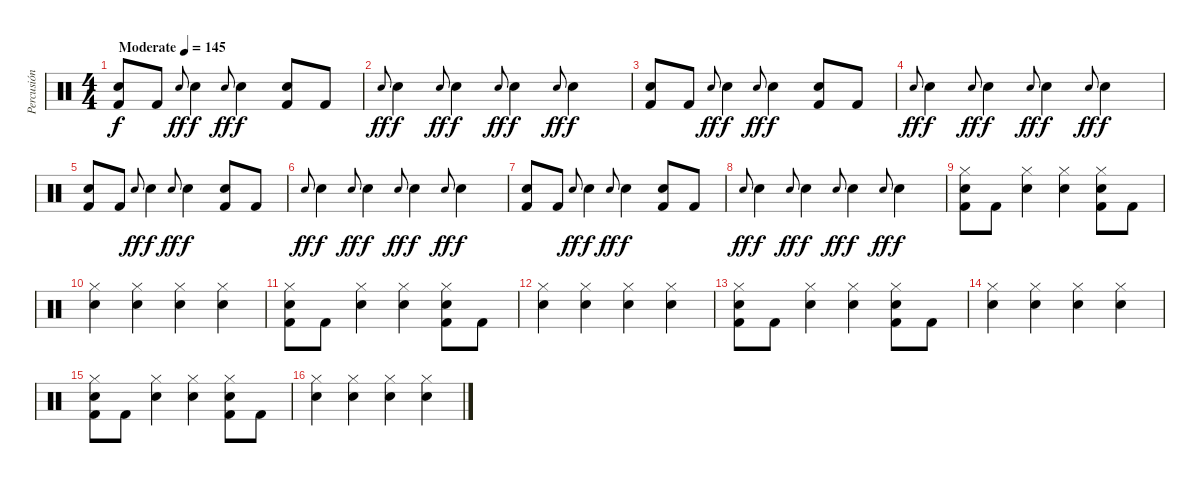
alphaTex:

\track ("Percusión" "Percusión") {instrument percussion}
\staff {score}
\articulation defaults
\ts (4 4)
\tempo (145 "Moderate")
\clef neutral
\ks c
("Snare (hit) 2" "Kick (hit) 2").8{dy f} "Kick (hit) 2".8 "Snare (hit) 2".8{gr onbeat dy ff} "Snare (hit) 2".4{dy f} "Snare (hit) 2".8{gr onbeat dy ff} "Snare (hit) 2".4{dy f} ("Snare (hit) 2" "Kick (hit) 2").8 "Kick (hit) 2".8 |
"Snare (hit) 2".8{gr onbeat dy ff} "Snare (hit) 2".4{dy f} "Snare (hit) 2".8{gr onbeat dy ff} "Snare (hit) 2".4{dy f} "Snare (hit) 2".8{gr onbeat dy ff} "Snare (hit) 2".4{dy f} "Snare (hit) 2".8{gr onbeat dy ff} "Snare (hit) 2".4{dy f} |
("Snare (hit) 2" "Kick (hit) 2").8 "Kick (hit) 2".8 "Snare (hit) 2".8{gr onbeat dy ff} "Snare (hit) 2".4{dy f} "Snare (hit) 2".8{gr onbeat dy ff} "Snare (hit) 2".4{dy f} ("Snare (hit) 2" "Kick (hit) 2").8 "Kick (hit) 2".8 |
"Snare (hit) 2".8{gr onbeat dy ff} "Snare (hit) 2".4{dy f} "Snare (hit) 2".8{gr onbeat dy ff} "Snare (hit) 2".4{dy f} "Snare (hit) 2".8{gr onbeat dy ff} "Snare (hit) 2".4{dy f} "Snare (hit) 2".8{gr onbeat dy ff} "Snare (hit) 2".4{dy f} |
("Snare (hit) 2" "Kick (hit) 2").8 "Kick (hit) 2".8 "Snare (hit) 2".8{gr onbeat dy ff} "Snare (hit) 2".4{dy f} "Snare (hit) 2".8{gr onbeat dy ff} "Snare (hit) 2".4{dy f} ("Snare (hit) 2" "Kick (hit) 2").8 "Kick (hit) 2".8 |
"Snare (hit) 2".8{gr onbeat dy ff} "Snare (hit) 2".4{dy f} "Snare (hit) 2".8{gr onbeat dy ff} "Snare (hit) 2".4{dy f} "Snare (hit) 2".8{gr onbeat dy ff} "Snare (hit) 2".4{dy f} "Snare (hit) 2".8{gr onbeat dy ff} "Snare (hit) 2".4{dy f} |
("Snare (hit) 2" "Kick (hit) 2").8 "Kick (hit) 2".8 "Snare (hit) 2".8{gr onbeat dy ff} "Snare (hit) 2".4{dy f} "Snare (hit) 2".8{gr onbeat dy ff} "Snare (hit) 2".4{dy f} ("Snare (hit) 2" "Kick (hit) 2").8 "Kick (hit) 2".8 |
"Snare (hit) 2".8{gr onbeat dy ff} "Snare (hit) 2".4{dy f} "Snare (hit) 2".8{gr onbeat dy ff} "Snare (hit) 2".4{dy f} "Snare (hit) 2".8{gr onbeat dy ff} "Snare (hit) 2".4{dy f} "Snare (hit) 2".8{gr onbeat dy ff} "Snare (hit) 2".4{dy f} |
("Hi-Hat (closed)" "Snare (hit) 2" "Kick (hit) 2").8 "Kick (hit) 2".8 ("Hi-Hat (closed)" "Snare (hit) 2").4 ("Hi-Hat (closed)" "Snare (hit) 2").4 ("Hi-Hat (closed)" "Snare (hit) 2" "Kick (hit) 2").8 "Kick (hit) 2".8 |
("Hi-Hat (closed)" "Snare (hit) 2").4 ("Hi-Hat (closed)" "Snare (hit) 2").4 ("Hi-Hat (closed)" "Snare (hit) 2").4 ("Hi-Hat (closed)" "Snare (hit) 2").4 |
("Hi-Hat (closed)" "Snare (hit) 2" "Kick (hit) 2").8 "Kick (hit) 2".8 ("Hi-Hat (closed)" "Snare (hit) 2").4 ("Hi-Hat (closed)" "Snare (hit) 2").4 ("Hi-Hat (closed)" "Snare (hit) 2" "Kick (hit) 2").8 "Kick (hit) 2".8 |
("Hi-Hat (closed)" "Snare (hit) 2").4 ("Hi-Hat (closed)" "Snare (hit) 2").4 ("Hi-Hat (closed)" "Snare (hit) 2").4 ("Hi-Hat (closed)" "Snare (hit) 2").4 |
("Hi-Hat (closed)" "Snare (hit) 2" "Kick (hit) 2").8 "Kick (hit) 2".8 ("Hi-Hat (closed)" "Snare (hit) 2").4 ("Hi-Hat (closed)" "Snare (hit) 2").4 ("Hi-Hat (closed)" "Snare (hit) 2" "Kick (hit) 2").8 "Kick (hit) 2".8 |
("Hi-Hat (closed)" "Snare (hit) 2").4 ("Hi-Hat (closed)" "Snare (hit) 2").4 ("Hi-Hat (closed)" "Snare (hit) 2").4 ("Hi-Hat (closed)" "Snare (hit) 2").4 |
("Hi-Hat (closed)" "Snare (hit) 2" "Kick (hit) 2").8 "Kick (hit) 2".8 ("Hi-Hat (closed)" "Snare (hit) 2").4 ("Hi-Hat (closed)" "Snare (hit) 2").4 ("Hi-Hat (closed)" "Snare (hit) 2" "Kick (hit) 2").8 "Kick (hit) 2".8 |
("Hi-Hat (closed)" "Snare (hit) 2").4 ("Hi-Hat (closed)" "Snare (hit) 2").4 ("Hi-Hat (closed)" "Snare (hit) 2").4 ("Hi-Hat (closed)" "Snare (hit) 2").4
